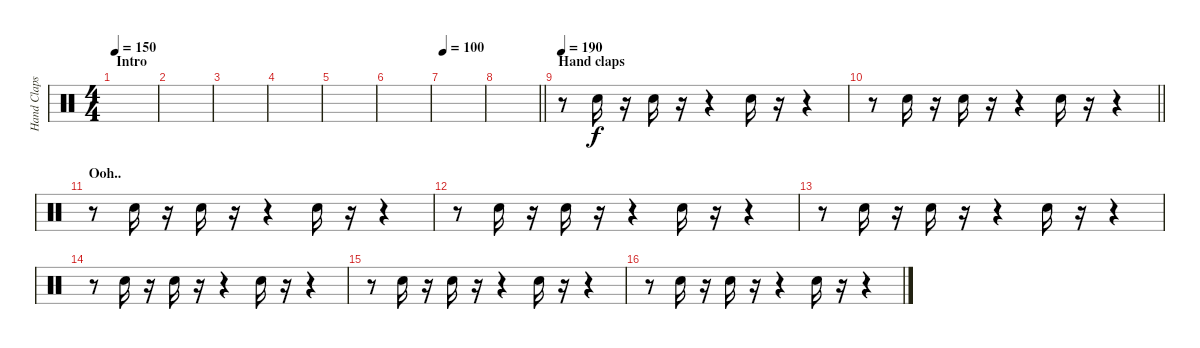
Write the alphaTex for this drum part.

\track ("Hand Claps" "Hand Claps") {instrument percussion}
\staff {score}
\articulation defaults
\ts (4 4)
\section ("" "Intro")
\tempo 150
\clef neutral
\ks c
|
|
|
|
|
|
\tempo 100
|
\barLineRight lightlight
|
\section ("" "Hand claps")
\tempo 190
r.8 "Hand Clap (hit)".16 r.16 "Hand Clap (hit)".16 r.16 r.4 "Hand Clap (hit)".16 r.16 r.4 |
\barLineRight lightlight
r.8 "Hand Clap (hit)".16 r.16 "Hand Clap (hit)".16 r.16 r.4 "Hand Clap (hit)".16 r.16 r.4 |
\section ("" "Ooh..")
r.8 "Hand Clap (hit)".16 r.16 "Hand Clap (hit)".16 r.16 r.4 "Hand Clap (hit)".16 r.16 r.4 |
r.8 "Hand Clap (hit)".16 r.16 "Hand Clap (hit)".16 r.16 r.4 "Hand Clap (hit)".16 r.16 r.4 |
r.8 "Hand Clap (hit)".16 r.16 "Hand Clap (hit)".16 r.16 r.4 "Hand Clap (hit)".16 r.16 r.4 |
r.8 "Hand Clap (hit)".16 r.16 "Hand Clap (hit)".16 r.16 r.4 "Hand Clap (hit)".16 r.16 r.4 |
r.8 "Hand Clap (hit)".16 r.16 "Hand Clap (hit)".16 r.16 r.4 "Hand Clap (hit)".16 r.16 r.4 |
r.8 "Hand Clap (hit)".16 r.16 "Hand Clap (hit)".16 r.16 r.4 "Hand Clap (hit)".16 r.16 r.4
